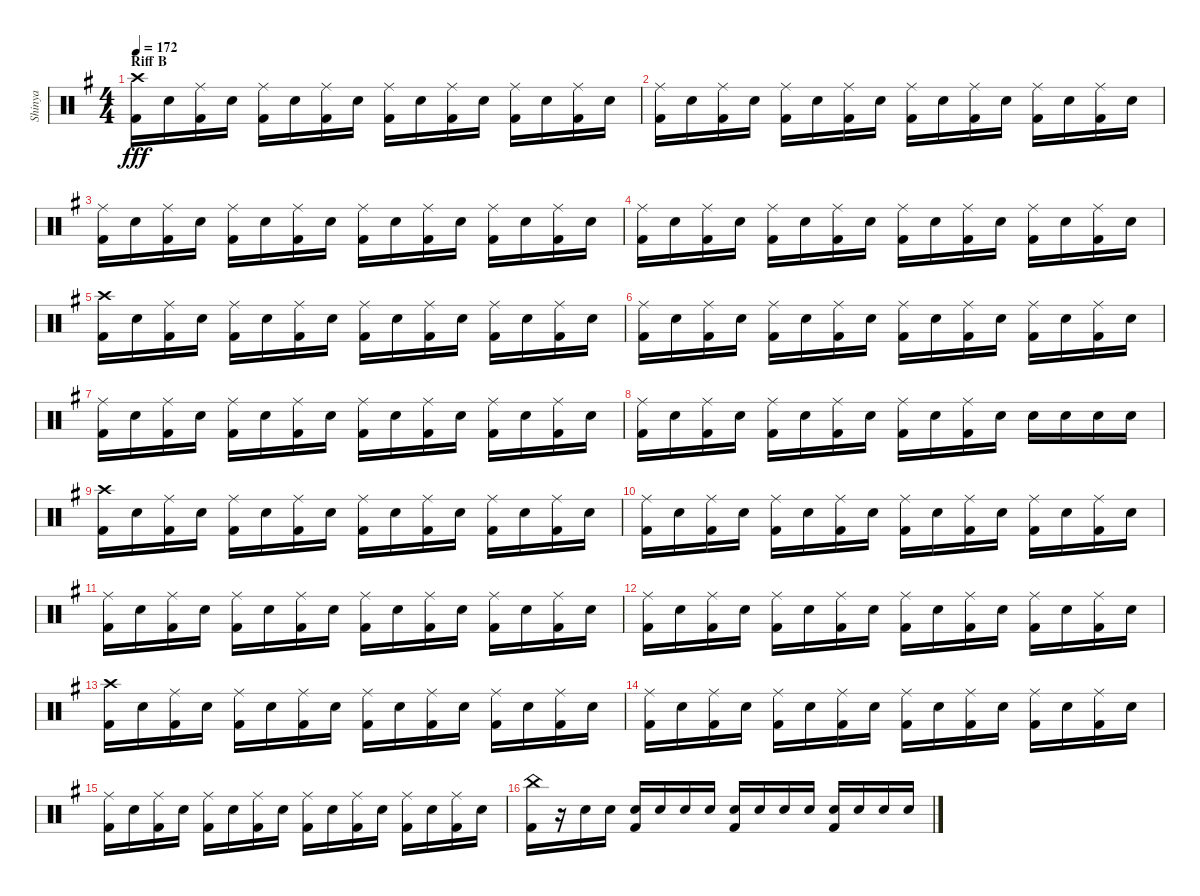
\track ("Shinya" "Shinya") {instrument percussion}
\staff {score}
\articulation defaults
\ts (4 4)
\section ("" "Riff B")
\tempo 172
\clef neutral
\ks eminor
("Kick (hit) 2" "Crash high (hit)").16{dy fff} "Snare (hit) 2".16 ("Kick (hit) 2" "Ride (middle)").16 "Snare (hit) 2".16 ("Kick (hit) 2" "Ride (middle)").16 "Snare (hit) 2".16 ("Kick (hit) 2" "Ride (middle)").16 "Snare (hit) 2".16 ("Kick (hit) 2" "Ride (middle)").16 "Snare (hit) 2".16 ("Kick (hit) 2" "Ride (middle)").16 "Snare (hit) 2".16 ("Kick (hit) 2" "Ride (middle)").16 "Snare (hit) 2".16 ("Kick (hit) 2" "Ride (middle)").16 "Snare (hit) 2".16 |
("Kick (hit) 2" "Ride (middle)").16 "Snare (hit) 2".16 ("Kick (hit) 2" "Ride (middle)").16 "Snare (hit) 2".16 ("Kick (hit) 2" "Ride (middle)").16 "Snare (hit) 2".16 ("Kick (hit) 2" "Ride (middle)").16 "Snare (hit) 2".16 ("Kick (hit) 2" "Ride (middle)").16 "Snare (hit) 2".16 ("Kick (hit) 2" "Ride (middle)").16 "Snare (hit) 2".16 ("Kick (hit) 2" "Ride (middle)").16 "Snare (hit) 2".16 ("Kick (hit) 2" "Ride (middle)").16 "Snare (hit) 2".16 |
("Kick (hit) 2" "Ride (middle)").16 "Snare (hit) 2".16 ("Kick (hit) 2" "Ride (middle)").16 "Snare (hit) 2".16 ("Kick (hit) 2" "Ride (middle)").16 "Snare (hit) 2".16 ("Kick (hit) 2" "Ride (middle)").16 "Snare (hit) 2".16 ("Kick (hit) 2" "Ride (middle)").16 "Snare (hit) 2".16 ("Kick (hit) 2" "Ride (middle)").16 "Snare (hit) 2".16 ("Kick (hit) 2" "Ride (middle)").16 "Snare (hit) 2".16 ("Kick (hit) 2" "Ride (middle)").16 "Snare (hit) 2".16 |
("Kick (hit) 2" "Ride (middle)").16 "Snare (hit) 2".16 ("Kick (hit) 2" "Ride (middle)").16 "Snare (hit) 2".16 ("Kick (hit) 2" "Ride (middle)").16 "Snare (hit) 2".16 ("Kick (hit) 2" "Ride (middle)").16 "Snare (hit) 2".16 ("Kick (hit) 2" "Ride (middle)").16 "Snare (hit) 2".16 ("Kick (hit) 2" "Ride (middle)").16 "Snare (hit) 2".16 ("Kick (hit) 2" "Ride (middle)").16 "Snare (hit) 2".16 ("Kick (hit) 2" "Ride (middle)").16 "Snare (hit) 2".16 |
("Kick (hit) 2" "Crash high (hit)").16 "Snare (hit) 2".16 ("Kick (hit) 2" "Ride (middle)").16 "Snare (hit) 2".16 ("Kick (hit) 2" "Ride (middle)").16 "Snare (hit) 2".16 ("Kick (hit) 2" "Ride (middle)").16 "Snare (hit) 2".16 ("Kick (hit) 2" "Ride (middle)").16 "Snare (hit) 2".16 ("Kick (hit) 2" "Ride (middle)").16 "Snare (hit) 2".16 ("Kick (hit) 2" "Ride (middle)").16 "Snare (hit) 2".16 ("Kick (hit) 2" "Ride (middle)").16 "Snare (hit) 2".16 |
("Kick (hit) 2" "Ride (middle)").16 "Snare (hit) 2".16 ("Kick (hit) 2" "Ride (middle)").16 "Snare (hit) 2".16 ("Kick (hit) 2" "Ride (middle)").16 "Snare (hit) 2".16 ("Kick (hit) 2" "Ride (middle)").16 "Snare (hit) 2".16 ("Kick (hit) 2" "Ride (middle)").16 "Snare (hit) 2".16 ("Kick (hit) 2" "Ride (middle)").16 "Snare (hit) 2".16 ("Kick (hit) 2" "Ride (middle)").16 "Snare (hit) 2".16 ("Kick (hit) 2" "Ride (middle)").16 "Snare (hit) 2".16 |
("Kick (hit) 2" "Ride (middle)").16 "Snare (hit) 2".16 ("Kick (hit) 2" "Ride (middle)").16 "Snare (hit) 2".16 ("Kick (hit) 2" "Ride (middle)").16 "Snare (hit) 2".16 ("Kick (hit) 2" "Ride (middle)").16 "Snare (hit) 2".16 ("Kick (hit) 2" "Ride (middle)").16 "Snare (hit) 2".16 ("Kick (hit) 2" "Ride (middle)").16 "Snare (hit) 2".16 ("Kick (hit) 2" "Ride (middle)").16 "Snare (hit) 2".16 ("Kick (hit) 2" "Ride (middle)").16 "Snare (hit) 2".16 |
("Kick (hit) 2" "Ride (middle)").16 "Snare (hit) 2".16 ("Kick (hit) 2" "Ride (middle)").16 "Snare (hit) 2".16 ("Kick (hit) 2" "Ride (middle)").16 "Snare (hit) 2".16 ("Kick (hit) 2" "Ride (middle)").16 "Snare (hit) 2".16 ("Kick (hit) 2" "Ride (middle)").16 "Snare (hit) 2".16 ("Kick (hit) 2" "Ride (middle)").16 "Snare (hit) 2".16 "Snare (hit) 2".16 "Snare (hit) 2".16 "Snare (hit) 2".16 "Snare (hit) 2".16 |
("Kick (hit) 2" "Crash high (hit)").16 "Snare (hit) 2".16 ("Kick (hit) 2" "Ride (middle)").16 "Snare (hit) 2".16 ("Kick (hit) 2" "Ride (middle)").16 "Snare (hit) 2".16 ("Kick (hit) 2" "Ride (middle)").16 "Snare (hit) 2".16 ("Kick (hit) 2" "Ride (middle)").16 "Snare (hit) 2".16 ("Kick (hit) 2" "Ride (middle)").16 "Snare (hit) 2".16 ("Kick (hit) 2" "Ride (middle)").16 "Snare (hit) 2".16 ("Kick (hit) 2" "Ride (middle)").16 "Snare (hit) 2".16 |
("Kick (hit) 2" "Ride (middle)").16 "Snare (hit) 2".16 ("Kick (hit) 2" "Ride (middle)").16 "Snare (hit) 2".16 ("Kick (hit) 2" "Ride (middle)").16 "Snare (hit) 2".16 ("Kick (hit) 2" "Ride (middle)").16 "Snare (hit) 2".16 ("Kick (hit) 2" "Ride (middle)").16 "Snare (hit) 2".16 ("Kick (hit) 2" "Ride (middle)").16 "Snare (hit) 2".16 ("Kick (hit) 2" "Ride (middle)").16 "Snare (hit) 2".16 ("Kick (hit) 2" "Ride (middle)").16 "Snare (hit) 2".16 |
("Kick (hit) 2" "Ride (middle)").16 "Snare (hit) 2".16 ("Kick (hit) 2" "Ride (middle)").16 "Snare (hit) 2".16 ("Kick (hit) 2" "Ride (middle)").16 "Snare (hit) 2".16 ("Kick (hit) 2" "Ride (middle)").16 "Snare (hit) 2".16 ("Kick (hit) 2" "Ride (middle)").16 "Snare (hit) 2".16 ("Kick (hit) 2" "Ride (middle)").16 "Snare (hit) 2".16 ("Kick (hit) 2" "Ride (middle)").16 "Snare (hit) 2".16 ("Kick (hit) 2" "Ride (middle)").16 "Snare (hit) 2".16 |
("Kick (hit) 2" "Ride (middle)").16 "Snare (hit) 2".16 ("Kick (hit) 2" "Ride (middle)").16 "Snare (hit) 2".16 ("Kick (hit) 2" "Ride (middle)").16 "Snare (hit) 2".16 ("Kick (hit) 2" "Ride (middle)").16 "Snare (hit) 2".16 ("Kick (hit) 2" "Ride (middle)").16 "Snare (hit) 2".16 ("Kick (hit) 2" "Ride (middle)").16 "Snare (hit) 2".16 ("Kick (hit) 2" "Ride (middle)").16 "Snare (hit) 2".16 ("Kick (hit) 2" "Ride (middle)").16 "Snare (hit) 2".16 |
("Kick (hit) 2" "Crash high (hit)").16 "Snare (hit) 2".16 ("Kick (hit) 2" "Ride (middle)").16 "Snare (hit) 2".16 ("Kick (hit) 2" "Ride (middle)").16 "Snare (hit) 2".16 ("Kick (hit) 2" "Ride (middle)").16 "Snare (hit) 2".16 ("Kick (hit) 2" "Ride (middle)").16 "Snare (hit) 2".16 ("Kick (hit) 2" "Ride (middle)").16 "Snare (hit) 2".16 ("Kick (hit) 2" "Ride (middle)").16 "Snare (hit) 2".16 ("Kick (hit) 2" "Ride (middle)").16 "Snare (hit) 2".16 |
("Kick (hit) 2" "Ride (middle)").16 "Snare (hit) 2".16 ("Kick (hit) 2" "Ride (middle)").16 "Snare (hit) 2".16 ("Kick (hit) 2" "Ride (middle)").16 "Snare (hit) 2".16 ("Kick (hit) 2" "Ride (middle)").16 "Snare (hit) 2".16 ("Kick (hit) 2" "Ride (middle)").16 "Snare (hit) 2".16 ("Kick (hit) 2" "Ride (middle)").16 "Snare (hit) 2".16 ("Kick (hit) 2" "Ride (middle)").16 "Snare (hit) 2".16 ("Kick (hit) 2" "Ride (middle)").16 "Snare (hit) 2".16 |
("Kick (hit) 2" "Ride (middle)").16 "Snare (hit) 2".16 ("Kick (hit) 2" "Ride (middle)").16 "Snare (hit) 2".16 ("Kick (hit) 2" "Ride (middle)").16 "Snare (hit) 2".16 ("Kick (hit) 2" "Ride (middle)").16 "Snare (hit) 2".16 ("Kick (hit) 2" "Ride (middle)").16 "Snare (hit) 2".16 ("Kick (hit) 2" "Ride (middle)").16 "Snare (hit) 2".16 ("Kick (hit) 2" "Ride (middle)").16 "Snare (hit) 2".16 ("Kick (hit) 2" "Ride (middle)").16 "Snare (hit) 2".16 |
("Kick (hit) 2" "China (hit)").16 r.16 "Snare (hit) 2".16 "Snare (hit) 2".16 ("Kick (hit) 2" "Snare (hit) 2").16 "Snare (hit) 2".16 "Snare (hit) 2".16 "Snare (hit) 2".16 ("Kick (hit) 2" "Snare (hit) 2").16 "Snare (hit) 2".16 "Snare (hit) 2".16 "Snare (hit) 2".16 ("Kick (hit) 2" "Snare (hit) 2").16 "Snare (hit) 2".16 "Snare (hit) 2".16 "Snare (hit) 2".16
